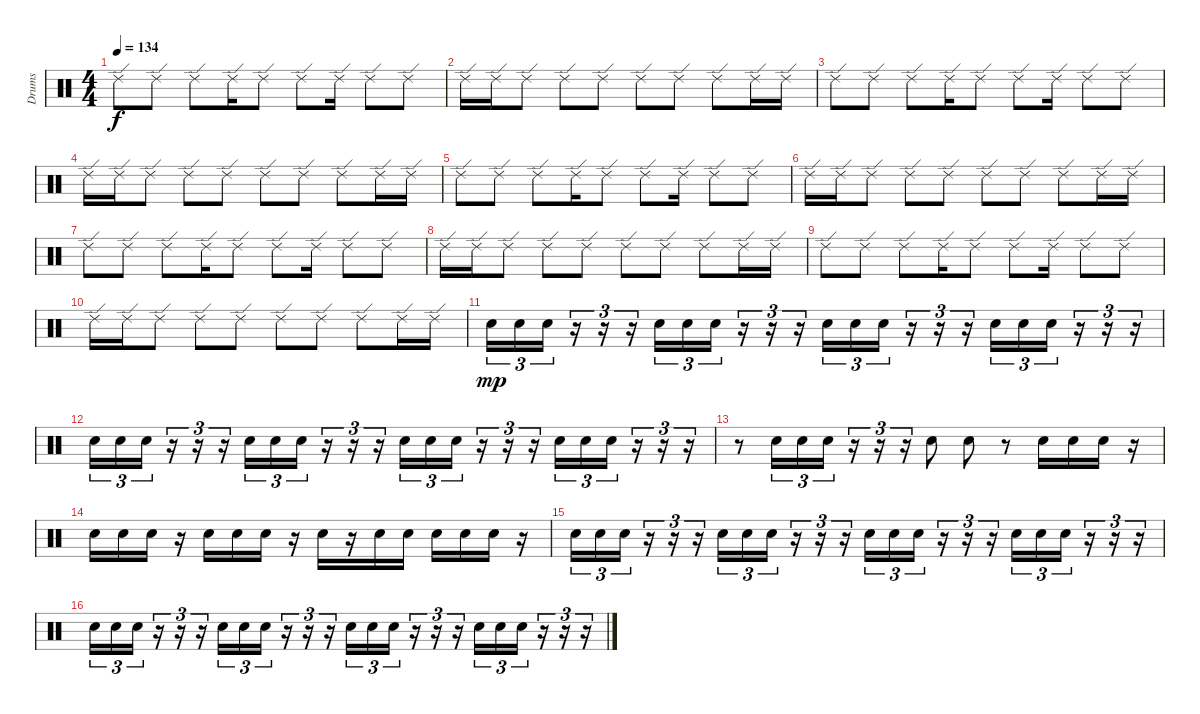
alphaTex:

\track ("Drums" "Drums") {instrument percussion}
\staff {score}
\articulation defaults
\ts (4 4)
\tempo 134
\clef neutral
\ks c "Ride (edge) 2".8{dy f} "Ride (edge) 2".8 "Ride (edge) 2".8 "Ride (edge) 2".16 "Ride (edge) 2".8 "Ride (edge) 2".8 "Ride (edge) 2".16 "Ride (edge) 2".8 "Ride (edge) 2".8
|
"Ride (edge) 2".16 "Ride (edge) 2".16 "Ride (edge) 2".8 "Ride (edge) 2".8 "Ride (edge) 2".8 "Ride (edge) 2".8 "Ride (edge) 2".8 "Ride (edge) 2".8 "Ride (edge) 2".16 "Ride (edge) 2".16 |
"Ride (edge) 2".8 "Ride (edge) 2".8 "Ride (edge) 2".8 "Ride (edge) 2".16 "Ride (edge) 2".8 "Ride (edge) 2".8 "Ride (edge) 2".16 "Ride (edge) 2".8 "Ride (edge) 2".8 |
"Ride (edge) 2".16 "Ride (edge) 2".16 "Ride (edge) 2".8 "Ride (edge) 2".8 "Ride (edge) 2".8 "Ride (edge) 2".8 "Ride (edge) 2".8 "Ride (edge) 2".8 "Ride (edge) 2".16 "Ride (edge) 2".16 |
"Ride (edge) 2".8 "Ride (edge) 2".8 "Ride (edge) 2".8 "Ride (edge) 2".16 "Ride (edge) 2".8 "Ride (edge) 2".8 "Ride (edge) 2".16 "Ride (edge) 2".8 "Ride (edge) 2".8 |
"Ride (edge) 2".16 "Ride (edge) 2".16 "Ride (edge) 2".8 "Ride (edge) 2".8 "Ride (edge) 2".8 "Ride (edge) 2".8 "Ride (edge) 2".8 "Ride (edge) 2".8 "Ride (edge) 2".16 "Ride (edge) 2".16 |
"Ride (edge) 2".8 "Ride (edge) 2".8 "Ride (edge) 2".8 "Ride (edge) 2".16 "Ride (edge) 2".8 "Ride (edge) 2".8 "Ride (edge) 2".16 "Ride (edge) 2".8 "Ride (edge) 2".8 |
"Ride (edge) 2".16 "Ride (edge) 2".16 "Ride (edge) 2".8 "Ride (edge) 2".8 "Ride (edge) 2".8 "Ride (edge) 2".8 "Ride (edge) 2".8 "Ride (edge) 2".8 "Ride (edge) 2".16 "Ride (edge) 2".16 |
"Ride (edge) 2".8 "Ride (edge) 2".8 "Ride (edge) 2".8 "Ride (edge) 2".16 "Ride (edge) 2".8 "Ride (edge) 2".8 "Ride (edge) 2".16 "Ride (edge) 2".8 "Ride (edge) 2".8 |
"Ride (edge) 2".16 "Ride (edge) 2".16 "Ride (edge) 2".8 "Ride (edge) 2".8 "Ride (edge) 2".8 "Ride (edge) 2".8 "Ride (edge) 2".8 "Ride (edge) 2".8 "Ride (edge) 2".16 "Ride (edge) 2".16 |
"Snare (hit) 2".16{tu (3 2) dy mp} "Snare (hit) 2".16{tu (3 2)} "Snare (hit) 2".16{tu (3 2)} r.16{tu (3 2)} r.16{tu (3 2)} r.16{tu (3 2)} "Electric Snare (hit)".16{tu (3 2)} "Electric Snare (hit)".16{tu (3 2)} "Electric Snare (hit)".16{tu (3 2)} r.16{tu (3 2)} r.16{tu (3 2)} r.16{tu (3 2)} "Snare (hit) 2".16{tu (3 2)} "Snare (hit) 2".16{tu (3 2)} "Snare (hit) 2".16{tu (3 2)} r.16{tu (3 2)} r.16{tu (3 2)} r.16{tu (3 2)} "Electric Snare (hit)".16{tu (3 2)} "Electric Snare (hit)".16{tu (3 2)} "Electric Snare (hit)".16{tu (3 2)} r.16{tu (3 2)} r.16{tu (3 2)} r.16{tu (3 2)} |
"Snare (hit) 2".16{tu (3 2)} "Snare (hit) 2".16{tu (3 2)} "Snare (hit) 2".16{tu (3 2)} r.16{tu (3 2)} r.16{tu (3 2)} r.16{tu (3 2)} "Electric Snare (hit)".16{tu (3 2)} "Electric Snare (hit)".16{tu (3 2)} "Electric Snare (hit)".16{tu (3 2)} r.16{tu (3 2)} r.16{tu (3 2)} r.16{tu (3 2)} "Snare (hit) 2".16{tu (3 2)} "Snare (hit) 2".16{tu (3 2)} "Snare (hit) 2".16{tu (3 2)} r.16{tu (3 2)} r.16{tu (3 2)} r.16{tu (3 2)} "Electric Snare (hit)".16{tu (3 2)} "Electric Snare (hit)".16{tu (3 2)} "Electric Snare (hit)".16{tu (3 2)} r.16{tu (3 2)} r.16{tu (3 2)} r.16{tu (3 2)} |
r.8 "Snare (hit) 2".16{tu (3 2)} "Snare (hit) 2".16{tu (3 2)} "Snare (hit) 2".16{tu (3 2)} r.16{tu (3 2)} r.16{tu (3 2)} r.16{tu (3 2)} "Snare (hit) 2".8 "Snare (hit) 2".8 r.8 "Snare (hit) 2".16 "Snare (hit) 2".16 "Snare (hit) 2".16 r.16 |
"Snare (hit) 2".16 "Snare (hit) 2".16 "Snare (hit) 2".16 r.16 "Snare (hit) 2".16 "Snare (hit) 2".16 "Snare (hit) 2".16 r.16 "Snare (hit) 2".16 r.16 "Snare (hit) 2".16 "Snare (hit) 2".16 "Snare (hit) 2".16 "Snare (hit) 2".16 "Snare (hit) 2".16 r.16 |
"Snare (hit) 2".16{tu (3 2)} "Snare (hit) 2".16{tu (3 2)} "Snare (hit) 2".16{tu (3 2)} r.16{tu (3 2)} r.16{tu (3 2)} r.16{tu (3 2)} "Electric Snare (hit)".16{tu (3 2)} "Electric Snare (hit)".16{tu (3 2)} "Electric Snare (hit)".16{tu (3 2)} r.16{tu (3 2)} r.16{tu (3 2)} r.16{tu (3 2)} "Snare (hit) 2".16{tu (3 2)} "Snare (hit) 2".16{tu (3 2)} "Snare (hit) 2".16{tu (3 2)} r.16{tu (3 2)} r.16{tu (3 2)} r.16{tu (3 2)} "Electric Snare (hit)".16{tu (3 2)} "Electric Snare (hit)".16{tu (3 2)} "Electric Snare (hit)".16{tu (3 2)} r.16{tu (3 2)} r.16{tu (3 2)} r.16{tu (3 2)} |
"Snare (hit) 2".16{tu (3 2)} "Snare (hit) 2".16{tu (3 2)} "Snare (hit) 2".16{tu (3 2)} r.16{tu (3 2)} r.16{tu (3 2)} r.16{tu (3 2)} "Electric Snare (hit)".16{tu (3 2)} "Electric Snare (hit)".16{tu (3 2)} "Electric Snare (hit)".16{tu (3 2)} r.16{tu (3 2)} r.16{tu (3 2)} r.16{tu (3 2)} "Snare (hit) 2".16{tu (3 2)} "Snare (hit) 2".16{tu (3 2)} "Snare (hit) 2".16{tu (3 2)} r.16{tu (3 2)} r.16{tu (3 2)} r.16{tu (3 2)} "Electric Snare (hit)".16{tu (3 2)} "Electric Snare (hit)".16{tu (3 2)} "Electric Snare (hit)".16{tu (3 2)} r.16{tu (3 2)} r.16{tu (3 2)} r.16{tu (3 2)}
